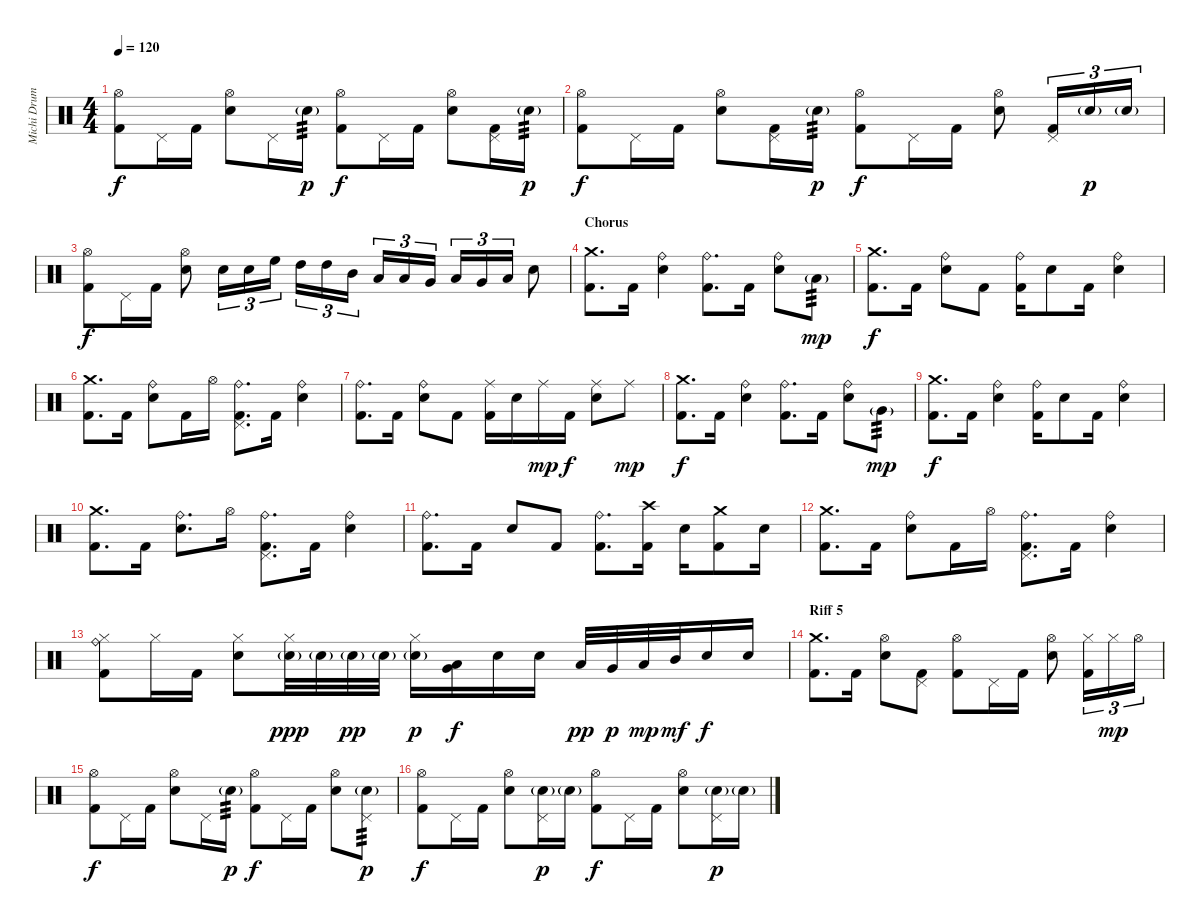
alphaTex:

\track ("Michi Drums" "Michi Drum") {instrument percussion}
\staff {score}
\articulation defaults
\ts (4 4)
\tempo 120
\clef neutral
\ks c
("Hi-Hat (open)" "Kick (hit) 2").8{dy f} "Pedal Hi-Hat (hit)".16 "Kick (hit) 2".16 ("Hi-Hat (open)" "Electric Snare (hit)").8 "Pedal Hi-Hat (hit)".16 "Electric Snare (hit)"{g}.16{tp 3 dy p} ("Hi-Hat (open)" "Kick (hit) 2").8{dy f} "Pedal Hi-Hat (hit)".16 "Kick (hit) 2".16 ("Hi-Hat (open)" "Electric Snare (hit)").8 ("Pedal Hi-Hat (hit)" "Kick (hit) 2").16 "Electric Snare (hit)"{g}.16{tp 3 dy p} |
("Hi-Hat (open)" "Kick (hit) 2").8{dy f} "Pedal Hi-Hat (hit)".16 "Kick (hit) 2".16 ("Hi-Hat (open)" "Electric Snare (hit)").8 ("Pedal Hi-Hat (hit)" "Kick (hit) 2").16 "Electric Snare (hit)"{g}.16{tp 3 dy p} ("Hi-Hat (open)" "Kick (hit) 2").8{dy f} "Pedal Hi-Hat (hit)".16 "Kick (hit) 2".16 ("Hi-Hat (open)" "Electric Snare (hit)").8 ("Pedal Hi-Hat (hit)" "Kick (hit) 2").16{tu (3 2)} "Electric Snare (hit)"{g}.16{tu (3 2) dy p} "Electric Snare (hit)"{g}.16{tu (3 2)} |
("Hi-Hat (open)" "Kick (hit) 2").8{dy f} "Pedal Hi-Hat (hit)".16 "Kick (hit) 2".16 ("Hi-Hat (open)" "Electric Snare (hit)").8 "Electric Snare (hit)".16{tu (3 2)} "Electric Snare (hit)".16{tu (3 2)} "High Floor Tom (hit)".16{tu (3 2)} "High Tom (hit)".16{tu (3 2)} "High Tom (hit)".16{tu (3 2)} "Mid Tom (hit)".16{tu (3 2)} "Low Tom (hit)".16{tu (3 2)} "Low Tom (hit)".16{tu (3 2)} "Very Low Tom (hit)".16{tu (3 2)} "Low Floor Tom (hit)".16{tu (3 2)} "Very Low Tom (hit)".16{tu (3 2)} "Low Tom (hit)".16{tu (3 2)} "Electric Snare (hit)".8 |
\section ("" "Chorus")
("Crash medium (hit)" "Kick (hit) 2").8{d} "Kick (hit) 2".16 ("Ride (bell)" "Electric Snare (hit)").4 ("Ride (bell)" "Kick (hit) 2").8{d} "Kick (hit) 2".16 ("Ride (bell)" "Electric Snare (hit)").8 "Low Floor Tom (hit)"{g}.8{tp 3 dy mp} |
("Crash medium (hit)" "Kick (hit) 2").8{d dy f} "Kick (hit) 2".16 ("Ride (bell)" "Electric Snare (hit)").8 "Kick (hit) 2".8 ("Ride (bell)" "Kick (hit) 2").16 "Electric Snare (hit)".8 "Kick (hit) 2".16 ("Ride (bell)" "Electric Snare (hit)").4 |
("Crash medium (hit)" "Kick (hit) 2").8{d} "Kick (hit) 2".16 ("Ride (bell)" "Electric Snare (hit)").8 "Kick (hit) 2".16 "Hi-Hat (open)".16 ("Ride (bell)" "Pedal Hi-Hat (hit)" "Kick (hit) 2").8{d} "Kick (hit) 2".16 ("Ride (bell)" "Electric Snare (hit)").4 |
("Ride (bell)" "Kick (hit) 2").8{d} "Kick (hit) 2".16 ("Ride (bell)" "Electric Snare (hit)").8 "Kick (hit) 2".8 ("Ride (middle)" "Kick (hit) 2").16 "Electric Snare (hit)".16 "Ride (middle)".16{dy mp} "Kick (hit) 2".16{dy f} ("Ride (middle)" "Electric Snare (hit)").8 "Ride (middle)".8{dy mp} |
("Crash medium (hit)" "Kick (hit) 2").8{d dy f} "Kick (hit) 2".16 ("Ride (bell)" "Electric Snare (hit)").4 ("Ride (bell)" "Kick (hit) 2").8{d} "Kick (hit) 2".16 ("Ride (bell)" "Electric Snare (hit)").8 "Very Low Tom (hit)"{g}.8{tp 3 dy mp} |
("Crash medium (hit)" "Kick (hit) 2").8{d dy f} "Kick (hit) 2".16 ("Ride (bell)" "Electric Snare (hit)").4 ("Ride (bell)" "Kick (hit) 2").16 "Electric Snare (hit)".8 "Kick (hit) 2".16 ("Ride (bell)" "Electric Snare (hit)").4 |
("Crash medium (hit)" "Kick (hit) 2").8{d} "Kick (hit) 2".16 ("Ride (bell)" "Electric Snare (hit)").8{d} "Hi-Hat (open)".16 ("Ride (bell)" "Pedal Hi-Hat (hit)" "Kick (hit) 2").8{d} "Kick (hit) 2".16 ("Ride (bell)" "Electric Snare (hit)").4 |
("Ride (bell)" "Kick (hit) 2").8{d} "Kick (hit) 2".16 "Electric Snare (hit)".8 "Kick (hit) 2".8 ("Ride (bell)" "Kick (hit) 2").8{d} ("Crash high (hit)" "Kick (hit) 2").16 "Electric Snare (hit)".16 ("Crash medium (hit)" "Kick (hit) 2").8 "Electric Snare (hit)".16 |
("Crash medium (hit)" "Kick (hit) 2").8{d} "Kick (hit) 2".16 ("Ride (bell)" "Electric Snare (hit)").8 "Kick (hit) 2".16 "Hi-Hat (open)".16 ("Ride (bell)" "Pedal Hi-Hat (hit)" "Kick (hit) 2").8{d} "Kick (hit) 2".16 ("Ride (bell)" "Electric Snare (hit)").4 |
("Ride (bell)" "Hi-Hat (closed)" "Kick (hit) 2").8 "Hi-Hat (closed)".16 "Kick (hit) 2".16 ("Hi-Hat (closed)" "Electric Snare (hit)").8 ("Hi-Hat (closed)" "Electric Snare (hit)"{g}).32{dy ppp} "Electric Snare (hit)"{g}.32 "Electric Snare (hit)"{g}.32{dy pp} "Electric Snare (hit)"{g}.32 ("Hi-Hat (closed)" "Electric Snare (hit)"{g}).16{dy p} ("Low Tom (hit)" "Very Low Tom (hit)").16{dy f} "Electric Snare (hit)".16 "Electric Snare (hit)".16 "Low Floor Tom (hit)".32{dy pp} "Very Low Tom (hit)".32{dy p} "Low Tom (hit)".32{dy mp} "Mid Tom (hit)".32{dy mf} "Electric Snare (hit)".16{dy f} "Electric Snare (hit)".16 |
\section ("" "Riff 5")
("Crash medium (hit)" "Kick (hit) 2").8{d} "Kick (hit) 2".16 ("Hi-Hat (open)" "Electric Snare (hit)").8 ("Pedal Hi-Hat (hit)" "Kick (hit) 2").8 ("Hi-Hat (open)" "Kick (hit) 2").8 "Pedal Hi-Hat (hit)".16 "Kick (hit) 2".16 ("Hi-Hat (open)" "Electric Snare (hit)").8 ("Hi-Hat (closed)" "Kick (hit) 2").16{tu (3 2)} "Hi-Hat (closed)".16{tu (3 2) dy mp} "Hi-Hat (open)".16{tu (3 2)} |
("Hi-Hat (open)" "Kick (hit) 2").8{dy f} "Pedal Hi-Hat (hit)".16 "Kick (hit) 2".16 ("Hi-Hat (open)" "Electric Snare (hit)").8 "Pedal Hi-Hat (hit)".16 "Electric Snare (hit)"{g}.16{tp 3 dy p} ("Hi-Hat (open)" "Kick (hit) 2").8{dy f} "Pedal Hi-Hat (hit)".16 "Kick (hit) 2".16 ("Hi-Hat (open)" "Electric Snare (hit)").8 ("Pedal Hi-Hat (hit)" "Electric Snare (hit)"{g}).8{tp 3 dy p} |
("Hi-Hat (open)" "Kick (hit) 2").8{dy f} "Pedal Hi-Hat (hit)".16 "Kick (hit) 2".16 ("Hi-Hat (open)" "Electric Snare (hit)").8 ("Pedal Hi-Hat (hit)" "Electric Snare (hit)"{g}).16{dy p} "Electric Snare (hit)"{g}.16 ("Hi-Hat (open)" "Kick (hit) 2").8{dy f} "Pedal Hi-Hat (hit)".16 "Kick (hit) 2".16 ("Hi-Hat (open)" "Electric Snare (hit)").8 ("Pedal Hi-Hat (hit)" "Electric Snare (hit)"{g}).16{dy p} "Electric Snare (hit)"{g}.16
